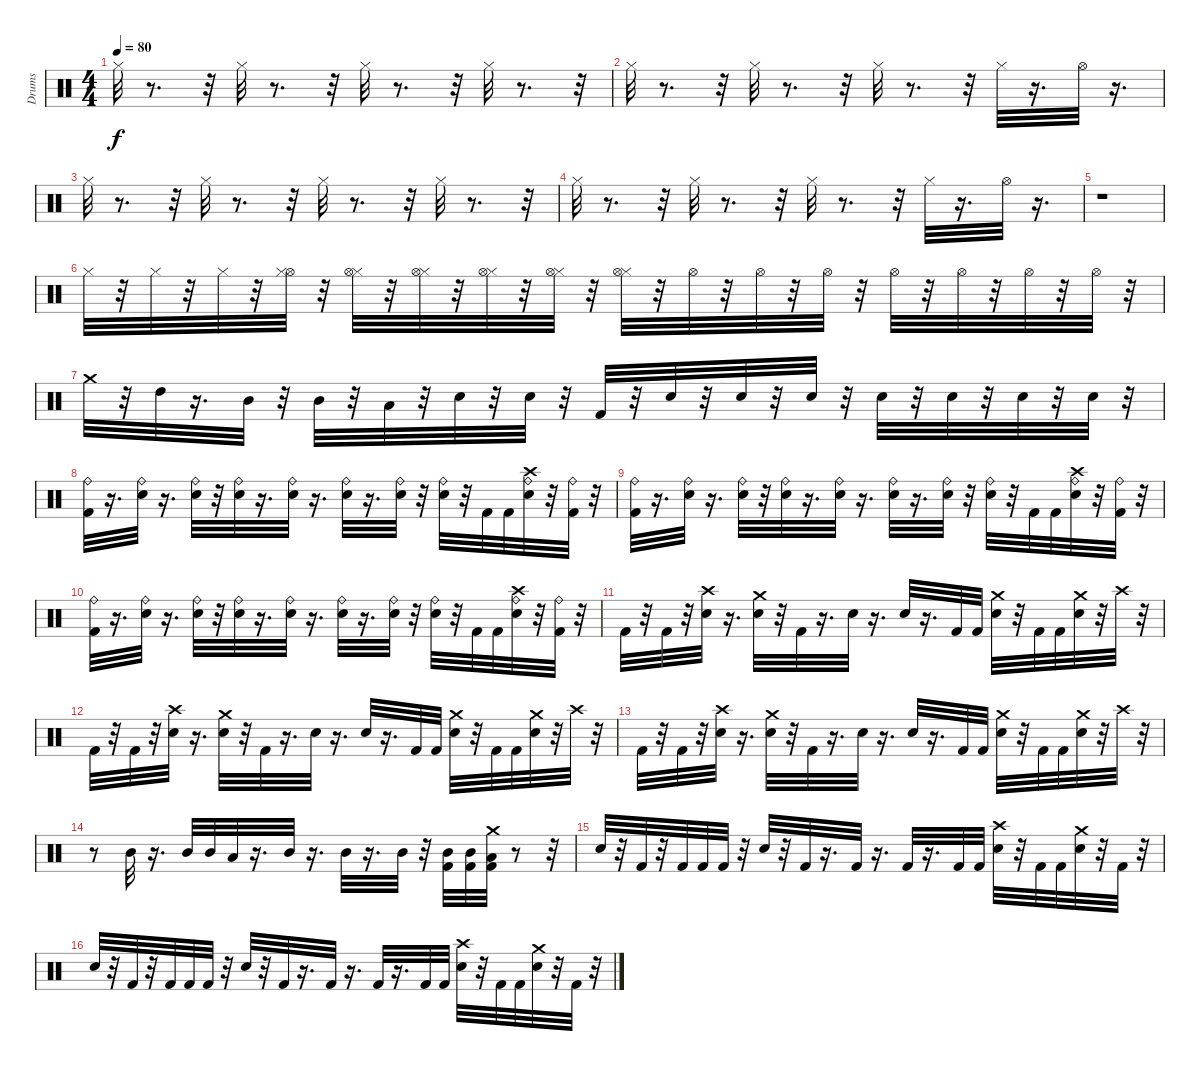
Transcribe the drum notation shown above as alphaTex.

\track ("Drums" "Drums") {instrument percussion}
\staff {score}
\articulation defaults
\ts (4 4)
\tempo 80
\clef neutral
\ks c "Hi-Hat (closed)".32{dy f}
r.8{d} r.32 "Hi-Hat (closed)".32 r.8{d} r.32 "Hi-Hat (closed)".32 r.8{d} r.32 "Hi-Hat (closed)".32 r.8{d} r.32 |
"Hi-Hat (closed)".32 r.8{d} r.32 "Hi-Hat (closed)".32 r.8{d} r.32 "Hi-Hat (closed)".32 r.8{d} r.32 "Hi-Hat (closed)".32 r.16{d} "Hi-Hat (open)".32 r.16{d} |
"Hi-Hat (closed)".32 r.8{d} r.32 "Hi-Hat (closed)".32 r.8{d} r.32 "Hi-Hat (closed)".32 r.8{d} r.32 "Hi-Hat (closed)".32 r.8{d} r.32 |
"Hi-Hat (closed)".32 r.8{d} r.32 "Hi-Hat (closed)".32 r.8{d} r.32 "Hi-Hat (closed)".32 r.8{d} r.32 "Hi-Hat (closed)".32 r.16{d} "Hi-Hat (open)".32 r.16{d} |
r.1 |
"Hi-Hat (closed)".32 r.32 "Hi-Hat (closed)".32 r.32 "Hi-Hat (closed)".32 r.32 ("Hi-Hat (open)" "Hi-Hat (closed)").32 r.32 ("Hi-Hat (closed)" "Hi-Hat (open)").32 r.32 ("Hi-Hat (closed)" "Hi-Hat (open)").32 r.32 ("Hi-Hat (closed)" "Hi-Hat (open)").32 r.32 ("Hi-Hat (closed)" "Hi-Hat (open)").32 r.32 ("Hi-Hat (closed)" "Hi-Hat (open)").32 r.32 "Hi-Hat (open)".32 r.32 "Hi-Hat (open)".32 r.32 "Hi-Hat (open)".32 r.32 "Hi-Hat (open)".32 r.32 "Hi-Hat (open)".32 r.32 "Hi-Hat (open)".32 r.32 "Hi-Hat (open)".32 r.32 |
"Crash medium (hit)".32 r.32 "High Tom (hit)".32 r.16{d} "Mid Tom (hit)".32 r.32 "Mid Tom (hit)".32 r.32 "Low Tom (hit)".32 r.32 "Electric Snare (hit)".32 r.32 "Electric Snare (hit)".32 r.32 "Kick (hit) 2".32 r.32 "Electric Snare (hit)".32 r.32 "Electric Snare (hit)".32 r.32 "Electric Snare (hit)".32 r.32 "Electric Snare (hit)".32 r.32 "Electric Snare (hit)".32 r.32 "Electric Snare (hit)".32 r.32 "Electric Snare (hit)".32 r.32 |
("Ride (bell)" "Kick (hit) 2").32 r.16{d} ("Electric Snare (hit)" "Ride (bell)").32 r.16{d} ("Electric Snare (hit)" "Ride (bell)").32 r.32 ("Electric Snare (hit)" "Ride (bell)").32 r.16{d} ("Electric Snare (hit)" "Ride (bell)").32 r.16{d} ("Electric Snare (hit)" "Ride (bell)").32 r.16{d} ("Electric Snare (hit)" "Ride (bell)").32 r.32 ("Electric Snare (hit)" "Ride (bell)").32 r.32 "Kick (hit) 2".32 "Kick (hit) 2".32 ("Crash high (hit)" "Electric Snare (hit)" "Ride (bell)").32 r.32 ("Kick (hit) 2" "Ride (bell)").32 r.32 |
("Kick (hit) 2" "Ride (bell)").32 r.16{d} ("Electric Snare (hit)" "Ride (bell)").32 r.16{d} ("Electric Snare (hit)" "Ride (bell)").32 r.32 ("Electric Snare (hit)" "Ride (bell)").32 r.16{d} ("Electric Snare (hit)" "Ride (bell)").32 r.16{d} ("Electric Snare (hit)" "Ride (bell)").32 r.16{d} ("Electric Snare (hit)" "Ride (bell)").32 r.32 ("Electric Snare (hit)" "Ride (bell)").32 r.32 "Kick (hit) 2".32 "Kick (hit) 2".32 ("Crash high (hit)" "Electric Snare (hit)" "Ride (bell)").32 r.32 ("Kick (hit) 2" "Ride (bell)").32 r.32 |
("Kick (hit) 2" "Ride (bell)").32 r.16{d} ("Electric Snare (hit)" "Ride (bell)").32 r.16{d} ("Electric Snare (hit)" "Ride (bell)").32 r.32 ("Electric Snare (hit)" "Ride (bell)").32 r.16{d} ("Electric Snare (hit)" "Ride (bell)").32 r.16{d} ("Electric Snare (hit)" "Ride (bell)").32 r.16{d} ("Electric Snare (hit)" "Ride (bell)").32 r.32 ("Electric Snare (hit)" "Ride (bell)").32 r.32 "Kick (hit) 2".32 "Kick (hit) 2".32 ("Crash high (hit)" "Electric Snare (hit)" "Ride (bell)").32 r.32 ("Kick (hit) 2" "Ride (bell)").32 r.32 |
"Kick (hit) 2".32 r.32 "Kick (hit) 2".32 r.32 ("Electric Snare (hit)" "Crash high (hit)").32 r.16{d} ("Electric Snare (hit)" "Crash medium (hit)").32 r.32 "Kick (hit) 2".32 r.16{d} "Electric Snare (hit)".32 r.16{d} "Electric Snare (hit)".32 r.16{d} "Kick (hit) 2".32 "Kick (hit) 2".32 ("Crash medium (hit)" "Electric Snare (hit)").32 r.32 "Kick (hit) 2".32 "Kick (hit) 2".32 ("Electric Snare (hit)" "Crash medium (hit)").32 r.32 "Crash high (hit)".32 r.32 |
"Kick (hit) 2".32 r.32 "Kick (hit) 2".32 r.32 ("Electric Snare (hit)" "Crash high (hit)").32 r.16{d} ("Electric Snare (hit)" "Crash medium (hit)").32 r.32 "Kick (hit) 2".32 r.16{d} "Electric Snare (hit)".32 r.16{d} "Electric Snare (hit)".32 r.16{d} "Kick (hit) 2".32 "Kick (hit) 2".32 ("Crash medium (hit)" "Electric Snare (hit)").32 r.32 "Kick (hit) 2".32 "Kick (hit) 2".32 ("Electric Snare (hit)" "Crash medium (hit)").32 r.32 "Crash high (hit)".32 r.32 |
"Kick (hit) 2".32 r.32 "Kick (hit) 2".32 r.32 ("Electric Snare (hit)" "Crash high (hit)").32 r.16{d} ("Electric Snare (hit)" "Crash medium (hit)").32 r.32 "Kick (hit) 2".32 r.16{d} "Electric Snare (hit)".32 r.16{d} "Electric Snare (hit)".32 r.16{d} "Kick (hit) 2".32 "Kick (hit) 2".32 ("Crash medium (hit)" "Electric Snare (hit)").32 r.32 "Kick (hit) 2".32 "Kick (hit) 2".32 ("Electric Snare (hit)" "Crash medium (hit)").32 r.32 "Crash high (hit)".32 r.32 |
r.8 "Mid Tom (hit)".32 r.16{d} "Mid Tom (hit)".32 "Mid Tom (hit)".32 "Low Tom (hit)".32 r.16{d} "Mid Tom (hit)".32 r.16{d} "Mid Tom (hit)".32 r.16{d} "Mid Tom (hit)".32 r.32 ("Kick (hit) 2" "Mid Tom (hit)").32 ("Kick (hit) 2" "Mid Tom (hit)").32 ("Kick (hit) 2" "Low Tom (hit)" "Crash medium (hit)").32 r.8 r.32 |
"Electric Snare (hit)".32 r.32 "Kick (hit) 2".32 r.32 "Kick (hit) 2".32 "Kick (hit) 2".32 "Kick (hit) 2".32 r.32 "Electric Snare (hit)".32 r.32 "Kick (hit) 2".32 r.16{d} "Kick (hit) 2".32 r.16{d} "Kick (hit) 2".32 r.16{d} "Kick (hit) 2".32 "Kick (hit) 2".32 ("Crash high (hit)" "Electric Snare (hit)").32 r.32 "Kick (hit) 2".32 "Kick (hit) 2".32 ("Electric Snare (hit)" "Crash medium (hit)").32 r.32 "Kick (hit) 2".32 r.32 |
"Electric Snare (hit)".32 r.32 "Kick (hit) 2".32 r.32 "Kick (hit) 2".32 "Kick (hit) 2".32 "Kick (hit) 2".32 r.32 "Electric Snare (hit)".32 r.32 "Kick (hit) 2".32 r.16{d} "Kick (hit) 2".32 r.16{d} "Kick (hit) 2".32 r.16{d} "Kick (hit) 2".32 "Kick (hit) 2".32 ("Crash high (hit)" "Electric Snare (hit)").32 r.32 "Kick (hit) 2".32 "Kick (hit) 2".32 ("Electric Snare (hit)" "Crash medium (hit)").32 r.32 "Kick (hit) 2".32 r.32
